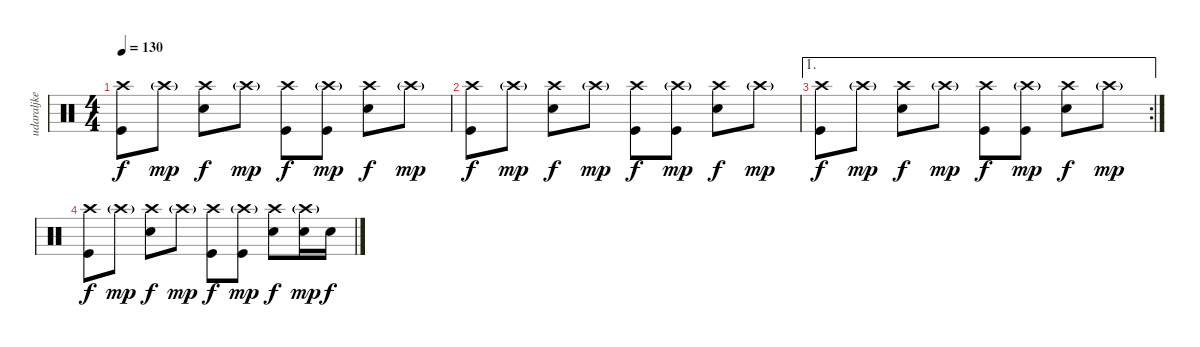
\track ("udaraljke" "udaraljke") {instrument percussion}
\staff {score}
\articulation defaults
\ts (4 4)
\tempo 130
\clef neutral
\ks c
("Crash high (hit)" "Kick (hit)").8{dy f} "Crash high (hit)"{g}.8{dy mp} ("Crash high (hit)" "Electric Snare (hit)").8{dy f} "Crash high (hit)"{g}.8{dy mp} ("Crash high (hit)" "Kick (hit)").8{dy f} ("Crash high (hit)"{g} "Kick (hit)").8{dy mp} ("Crash high (hit)" "Electric Snare (hit)").8{dy f} "Crash high (hit)"{g}.8{dy mp} |
("Crash high (hit)" "Kick (hit)").8{dy f} "Crash high (hit)"{g}.8{dy mp} ("Crash high (hit)" "Electric Snare (hit)").8{dy f} "Crash high (hit)"{g}.8{dy mp} ("Crash high (hit)" "Kick (hit)").8{dy f} ("Crash high (hit)"{g} "Kick (hit)").8{dy mp} ("Crash high (hit)" "Electric Snare (hit)").8{dy f} "Crash high (hit)"{g}.8{dy mp} |
\ae 1
\rc 2
("Crash high (hit)" "Kick (hit)").8{dy f} "Crash high (hit)"{g}.8{dy mp} ("Crash high (hit)" "Electric Snare (hit)").8{dy f} "Crash high (hit)"{g}.8{dy mp} ("Crash high (hit)" "Kick (hit)").8{dy f} ("Crash high (hit)"{g} "Kick (hit)").8{dy mp} ("Crash high (hit)" "Electric Snare (hit)").8{dy f} "Crash high (hit)"{g}.8{dy mp} |
("Crash high (hit)" "Kick (hit)").8{dy f} "Crash high (hit)"{g}.8{dy mp} ("Crash high (hit)" "Electric Snare (hit)").8{dy f} "Crash high (hit)"{g}.8{dy mp} ("Crash high (hit)" "Kick (hit)").8{dy f} ("Crash high (hit)"{g} "Kick (hit)").8{dy mp} ("Crash high (hit)" "Electric Snare (hit)").8{dy f} ("Crash high (hit)"{g} "Electric Snare (hit)").16{dy mp} "Electric Snare (hit)".16{dy f}
